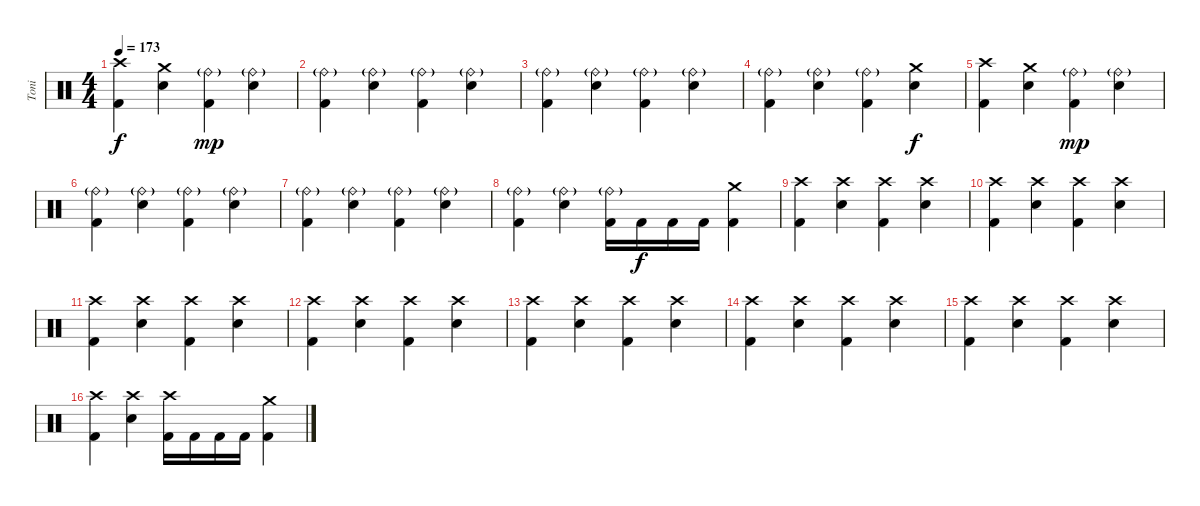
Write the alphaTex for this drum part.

\track ("Toni" "Toni") {instrument percussion}
\staff {score}
\articulation defaults
\ts (4 4)
\tempo 173
\clef neutral
\ks c
("Crash high (hit)" "Kick (hit) 2").4{dy f} ("Crash medium (hit)" "Electric Snare (hit)").4 ("Ride (bell)"{g} "Kick (hit) 2").4{dy mp} ("Ride (bell)"{g} "Electric Snare (hit)").4 |
("Ride (bell)"{g} "Kick (hit) 2").4 ("Ride (bell)"{g} "Electric Snare (hit)").4 ("Ride (bell)"{g} "Kick (hit) 2").4 ("Ride (bell)"{g} "Electric Snare (hit)").4 |
("Ride (bell)"{g} "Kick (hit) 2").4 ("Ride (bell)"{g} "Electric Snare (hit)").4 ("Ride (bell)"{g} "Kick (hit) 2").4 ("Ride (bell)"{g} "Electric Snare (hit)").4 |
("Ride (bell)"{g} "Kick (hit) 2").4 ("Ride (bell)"{g} "Electric Snare (hit)").4 ("Ride (bell)"{g} "Kick (hit) 2").4 ("Crash medium (hit)" "Electric Snare (hit)").4{dy f} |
("Crash high (hit)" "Kick (hit) 2").4 ("Crash medium (hit)" "Electric Snare (hit)").4 ("Ride (bell)"{g} "Kick (hit) 2").4{dy mp} ("Ride (bell)"{g} "Electric Snare (hit)").4 |
("Ride (bell)"{g} "Kick (hit) 2").4 ("Ride (bell)"{g} "Electric Snare (hit)").4 ("Ride (bell)"{g} "Kick (hit) 2").4 ("Ride (bell)"{g} "Electric Snare (hit)").4 |
("Ride (bell)"{g} "Kick (hit) 2").4 ("Ride (bell)"{g} "Electric Snare (hit)").4 ("Ride (bell)"{g} "Kick (hit) 2").4 ("Ride (bell)"{g} "Electric Snare (hit)").4 |
("Ride (bell)"{g} "Kick (hit) 2").4 ("Ride (bell)"{g} "Electric Snare (hit)").4 ("Ride (bell)"{g} "Kick (hit) 2").16 "Kick (hit) 2".16{dy f} "Kick (hit) 2".16 "Kick (hit) 2".16 ("Crash medium (hit)" "Kick (hit) 2").4 |
("Crash high (hit)" "Kick (hit) 2").4 ("Crash high (hit)" "Electric Snare (hit)").4 ("Crash high (hit)" "Kick (hit) 2").4 ("Crash high (hit)" "Electric Snare (hit)").4 |
("Crash high (hit)" "Kick (hit) 2").4 ("Crash high (hit)" "Electric Snare (hit)").4 ("Crash high (hit)" "Kick (hit) 2").4 ("Crash high (hit)" "Electric Snare (hit)").4 |
("Crash high (hit)" "Kick (hit) 2").4 ("Crash high (hit)" "Electric Snare (hit)").4 ("Crash high (hit)" "Kick (hit) 2").4 ("Crash high (hit)" "Electric Snare (hit)").4 |
("Crash high (hit)" "Kick (hit) 2").4 ("Crash high (hit)" "Electric Snare (hit)").4 ("Crash high (hit)" "Kick (hit) 2").4 ("Crash high (hit)" "Electric Snare (hit)").4 |
("Crash high (hit)" "Kick (hit) 2").4 ("Crash high (hit)" "Electric Snare (hit)").4 ("Crash high (hit)" "Kick (hit) 2").4 ("Crash high (hit)" "Electric Snare (hit)").4 |
("Crash high (hit)" "Kick (hit) 2").4 ("Crash high (hit)" "Electric Snare (hit)").4 ("Crash high (hit)" "Kick (hit) 2").4 ("Crash high (hit)" "Electric Snare (hit)").4 |
("Crash high (hit)" "Kick (hit) 2").4 ("Crash high (hit)" "Electric Snare (hit)").4 ("Crash high (hit)" "Kick (hit) 2").4 ("Crash high (hit)" "Electric Snare (hit)").4 |
("Crash high (hit)" "Kick (hit) 2").4 ("Crash high (hit)" "Electric Snare (hit)").4 ("Crash high (hit)" "Kick (hit) 2").16 "Kick (hit) 2".16 "Kick (hit) 2".16 "Kick (hit) 2".16 ("Crash medium (hit)" "Kick (hit) 2").4
